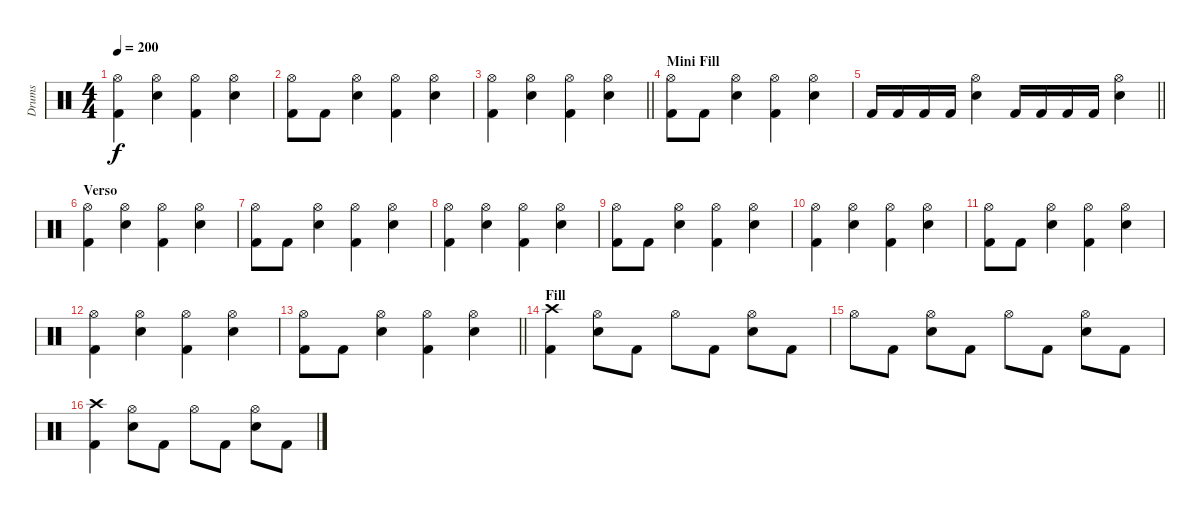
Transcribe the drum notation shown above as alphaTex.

\track ("Drums" "Drums") {instrument percussion}
\staff {score}
\articulation defaults
\ts (4 4)
\tempo 200
\clef neutral
\ks c
("Hi-Hat (open)" "Kick (hit) 2").4{dy f} ("Hi-Hat (open)" "Electric Snare (hit)").4 ("Hi-Hat (open)" "Kick (hit) 2").4 ("Hi-Hat (open)" "Electric Snare (hit)").4 |
("Hi-Hat (open)" "Kick (hit) 2").8 "Kick (hit) 2".8 ("Hi-Hat (open)" "Electric Snare (hit)").4 ("Hi-Hat (open)" "Kick (hit) 2").4 ("Hi-Hat (open)" "Electric Snare (hit)").4 |
\barLineRight lightlight
("Hi-Hat (open)" "Kick (hit) 2").4 ("Hi-Hat (open)" "Electric Snare (hit)").4 ("Hi-Hat (open)" "Kick (hit) 2").4 ("Hi-Hat (open)" "Electric Snare (hit)").4 |
\section ("" "Mini Fill")
("Hi-Hat (open)" "Kick (hit) 2").8 "Kick (hit) 2".8 ("Hi-Hat (open)" "Electric Snare (hit)").4 ("Hi-Hat (open)" "Kick (hit) 2").4 ("Hi-Hat (open)" "Electric Snare (hit)").4 |
\barLineRight lightlight "Kick (hit) 2".16 "Kick (hit) 2".16 "Kick (hit) 2".16 "Kick (hit) 2".16
("Hi-Hat (open)" "Electric Snare (hit)").4 "Kick (hit) 2".16 "Kick (hit) 2".16 "Kick (hit) 2".16 "Kick (hit) 2".16 ("Hi-Hat (open)" "Electric Snare (hit)").4 |
\section ("" "Verso")
("Hi-Hat (open)" "Kick (hit) 2").4 ("Hi-Hat (open)" "Electric Snare (hit)").4 ("Hi-Hat (open)" "Kick (hit) 2").4 ("Hi-Hat (open)" "Electric Snare (hit)").4 |
("Hi-Hat (open)" "Kick (hit) 2").8 "Kick (hit) 2".8 ("Hi-Hat (open)" "Electric Snare (hit)").4 ("Hi-Hat (open)" "Kick (hit) 2").4 ("Hi-Hat (open)" "Electric Snare (hit)").4 |
("Hi-Hat (open)" "Kick (hit) 2").4 ("Hi-Hat (open)" "Electric Snare (hit)").4 ("Hi-Hat (open)" "Kick (hit) 2").4 ("Hi-Hat (open)" "Electric Snare (hit)").4 |
("Hi-Hat (open)" "Kick (hit) 2").8 "Kick (hit) 2".8 ("Hi-Hat (open)" "Electric Snare (hit)").4 ("Hi-Hat (open)" "Kick (hit) 2").4 ("Hi-Hat (open)" "Electric Snare (hit)").4 |
("Hi-Hat (open)" "Kick (hit) 2").4 ("Hi-Hat (open)" "Electric Snare (hit)").4 ("Hi-Hat (open)" "Kick (hit) 2").4 ("Hi-Hat (open)" "Electric Snare (hit)").4 |
("Hi-Hat (open)" "Kick (hit) 2").8 "Kick (hit) 2".8 ("Hi-Hat (open)" "Electric Snare (hit)").4 ("Hi-Hat (open)" "Kick (hit) 2").4 ("Hi-Hat (open)" "Electric Snare (hit)").4 |
("Hi-Hat (open)" "Kick (hit) 2").4 ("Hi-Hat (open)" "Electric Snare (hit)").4 ("Hi-Hat (open)" "Kick (hit) 2").4 ("Hi-Hat (open)" "Electric Snare (hit)").4 |
\barLineRight lightlight
("Hi-Hat (open)" "Kick (hit) 2").8 "Kick (hit) 2".8 ("Hi-Hat (open)" "Electric Snare (hit)").4 ("Hi-Hat (open)" "Kick (hit) 2").4 ("Hi-Hat (open)" "Electric Snare (hit)").4 |
\section ("" "Fill")
("Crash high (hit)" "Kick (hit) 2").4 ("Hi-Hat (open)" "Electric Snare (hit)").8 "Kick (hit) 2".8 "Hi-Hat (open)".8 "Kick (hit) 2".8 ("Hi-Hat (open)" "Electric Snare (hit)").8 "Kick (hit) 2".8 |
"Hi-Hat (open)".8 "Kick (hit) 2".8 ("Hi-Hat (open)" "Electric Snare (hit)").8 "Kick (hit) 2".8 "Hi-Hat (open)".8 "Kick (hit) 2".8 ("Hi-Hat (open)" "Electric Snare (hit)").8 "Kick (hit) 2".8 |
("Crash high (hit)" "Kick (hit) 2").4 ("Hi-Hat (open)" "Electric Snare (hit)").8 "Kick (hit) 2".8 "Hi-Hat (open)".8 "Kick (hit) 2".8 ("Hi-Hat (open)" "Electric Snare (hit)").8 "Kick (hit) 2".8
